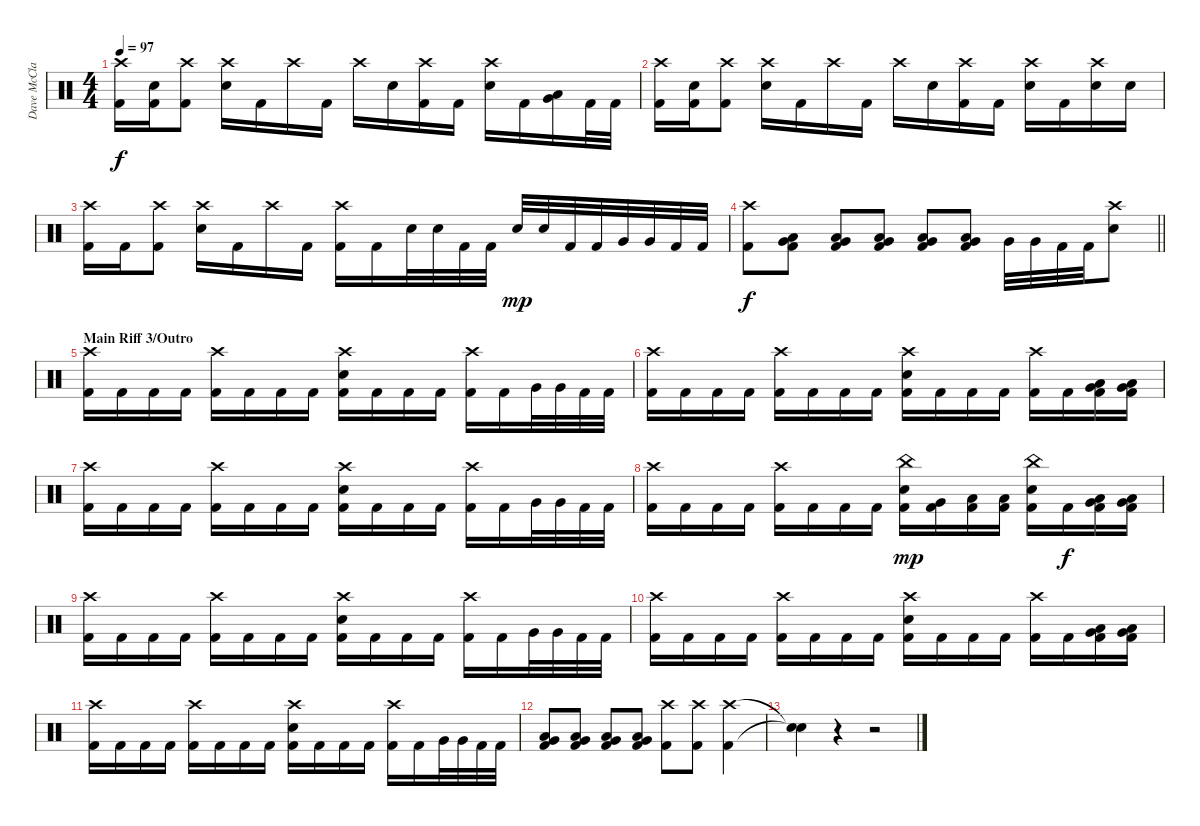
\track ("Dave McClain" "Dave McCla") {instrument percussion}
\staff {score}
\articulation defaults
\ts (4 4)
\tempo 97
\clef neutral
\ks c
("Crash high (hit)" "Kick (hit) 2").16{dy f} ("Snare (hit) 2" "Kick (hit) 2").16 ("Crash high (hit)" "Kick (hit) 2").8 ("Crash high (hit)" "Snare (hit) 2").16 "Kick (hit) 2".16 "Crash high (hit)".16 "Kick (hit) 2".16 "Crash high (hit)".16 "Snare (hit) 2".16 ("Crash high (hit)" "Kick (hit) 2").16 "Kick (hit) 2".16 ("Crash high (hit)" "Snare (hit) 2").16 "Kick (hit) 2".16 ("Low Floor Tom (hit)" "Very Low Tom (hit)").16 "Kick (hit) 2".32 "Kick (hit) 2".32 |
("Crash high (hit)" "Kick (hit) 2").16 ("Snare (hit) 2" "Kick (hit) 2").16 ("Crash high (hit)" "Kick (hit) 2").8 ("Crash high (hit)" "Snare (hit) 2").16 "Kick (hit) 2".16 "Crash high (hit)".16 "Kick (hit) 2".16 "Crash high (hit)".16 "Snare (hit) 2".16 ("Crash high (hit)" "Kick (hit) 2").16 "Kick (hit) 2".16 ("Crash high (hit)" "Snare (hit) 2").16 "Kick (hit) 2".16 ("Crash high (hit)" "Snare (hit) 2").16 "Snare (hit) 2".16 |
("Crash high (hit)" "Kick (hit) 2").16 "Kick (hit) 2".16 ("Crash high (hit)" "Kick (hit) 2").8 ("Crash high (hit)" "Snare (hit) 2").16 "Kick (hit) 2".16 "Crash high (hit)".16 "Kick (hit) 2".16 ("Crash high (hit)" "Kick (hit) 2").16 "Kick (hit) 2".16 "Snare (hit) 2".32 "Snare (hit) 2".32 "Kick (hit) 2".32 "Kick (hit) 2".32 "Snare (hit) 2".32{dy mp} "Snare (hit) 2".32 "Kick (hit) 2".32 "Kick (hit) 2".32 "Very Low Tom (hit)".32 "Very Low Tom (hit)".32 "Kick (hit) 2".32 "Kick (hit) 2".32 |
\barLineRight lightlight
("Crash high (hit)" "Kick (hit) 2").8{dy f} ("Very Low Tom (hit)" "Low Floor Tom (hit)" "Kick (hit) 2").8 ("Very Low Tom (hit)" "Low Floor Tom (hit)" "Kick (hit) 2").8 ("Very Low Tom (hit)" "Low Floor Tom (hit)" "Kick (hit) 2").8 ("Very Low Tom (hit)" "Low Floor Tom (hit)" "Kick (hit) 2").8 ("Very Low Tom (hit)" "Low Floor Tom (hit)" "Kick (hit) 2").8 "Very Low Tom (hit)".32 "Very Low Tom (hit)".32 "Kick (hit) 2".32 "Kick (hit) 2".32 ("Crash high (hit)" "Snare (hit) 2").8 |
\section ("" "Main Riff 3/Outro")
("Crash high (hit)" "Kick (hit) 2").16 "Kick (hit) 2".16 "Kick (hit) 2".16 "Kick (hit) 2".16 ("Crash high (hit)" "Kick (hit) 2").16 "Kick (hit) 2".16 "Kick (hit) 2".16 "Kick (hit) 2".16 ("Crash high (hit)" "Snare (hit) 2" "Kick (hit) 2").16 "Kick (hit) 2".16 "Kick (hit) 2".16 "Kick (hit) 2".16 ("Crash high (hit)" "Kick (hit) 2").16 "Kick (hit) 2".16 "Very Low Tom (hit)".32 "Very Low Tom (hit)".32 "Kick (hit) 2".32 "Kick (hit) 2".32 |
("Crash high (hit)" "Kick (hit) 2").16 "Kick (hit) 2".16 "Kick (hit) 2".16 "Kick (hit) 2".16 ("Crash high (hit)" "Kick (hit) 2").16 "Kick (hit) 2".16 "Kick (hit) 2".16 "Kick (hit) 2".16 ("Crash high (hit)" "Snare (hit) 2" "Kick (hit) 2").16 "Kick (hit) 2".16 "Kick (hit) 2".16 "Kick (hit) 2".16 ("Crash high (hit)" "Kick (hit) 2").16 "Kick (hit) 2".16 ("Very Low Tom (hit)" "Low Floor Tom (hit)" "Kick (hit) 2").16 ("Very Low Tom (hit)" "Low Floor Tom (hit)" "Kick (hit) 2").16 |
("Crash high (hit)" "Kick (hit) 2").16 "Kick (hit) 2".16 "Kick (hit) 2".16 "Kick (hit) 2".16 ("Crash high (hit)" "Kick (hit) 2").16 "Kick (hit) 2".16 "Kick (hit) 2".16 "Kick (hit) 2".16 ("Crash high (hit)" "Snare (hit) 2" "Kick (hit) 2").16 "Kick (hit) 2".16 "Kick (hit) 2".16 "Kick (hit) 2".16 ("Crash high (hit)" "Kick (hit) 2").16 "Kick (hit) 2".16 "Very Low Tom (hit)".32 "Very Low Tom (hit)".32 "Kick (hit) 2".32 "Kick (hit) 2".32 |
("Crash high (hit)" "Kick (hit) 2").16 "Kick (hit) 2".16 "Kick (hit) 2".16 "Kick (hit) 2".16 ("Crash high (hit)" "Kick (hit) 2").16 "Kick (hit) 2".16 "Kick (hit) 2".16 "Kick (hit) 2".16 ("China (hit)" "Snare (hit) 2" "Kick (hit) 2").16{dy mp} ("Very Low Tom (hit)" "Kick (hit) 2").16 ("Low Floor Tom (hit)" "Kick (hit) 2").16 ("Low Floor Tom (hit)" "Kick (hit) 2").16 ("China (hit)" "Snare (hit) 2" "Kick (hit) 2").16 "Kick (hit) 2".16{dy f} ("Very Low Tom (hit)" "Low Floor Tom (hit)" "Kick (hit) 2").16 ("Very Low Tom (hit)" "Low Floor Tom (hit)" "Kick (hit) 2").16 |
("Crash high (hit)" "Kick (hit) 2").16 "Kick (hit) 2".16 "Kick (hit) 2".16 "Kick (hit) 2".16 ("Crash high (hit)" "Kick (hit) 2").16 "Kick (hit) 2".16 "Kick (hit) 2".16 "Kick (hit) 2".16 ("Crash high (hit)" "Snare (hit) 2" "Kick (hit) 2").16 "Kick (hit) 2".16 "Kick (hit) 2".16 "Kick (hit) 2".16 ("Crash high (hit)" "Kick (hit) 2").16 "Kick (hit) 2".16 "Very Low Tom (hit)".32 "Very Low Tom (hit)".32 "Kick (hit) 2".32 "Kick (hit) 2".32 |
("Crash high (hit)" "Kick (hit) 2").16 "Kick (hit) 2".16 "Kick (hit) 2".16 "Kick (hit) 2".16 ("Crash high (hit)" "Kick (hit) 2").16 "Kick (hit) 2".16 "Kick (hit) 2".16 "Kick (hit) 2".16 ("Crash high (hit)" "Snare (hit) 2" "Kick (hit) 2").16 "Kick (hit) 2".16 "Kick (hit) 2".16 "Kick (hit) 2".16 ("Crash high (hit)" "Kick (hit) 2").16 "Kick (hit) 2".16 ("Very Low Tom (hit)" "Low Floor Tom (hit)" "Kick (hit) 2").16 ("Very Low Tom (hit)" "Low Floor Tom (hit)" "Kick (hit) 2").16 |
("Crash high (hit)" "Kick (hit) 2").16 "Kick (hit) 2".16 "Kick (hit) 2".16 "Kick (hit) 2".16 ("Crash high (hit)" "Kick (hit) 2").16 "Kick (hit) 2".16 "Kick (hit) 2".16 "Kick (hit) 2".16 ("Crash high (hit)" "Snare (hit) 2" "Kick (hit) 2").16 "Kick (hit) 2".16 "Kick (hit) 2".16 "Kick (hit) 2".16 ("Crash high (hit)" "Kick (hit) 2").16 "Kick (hit) 2".16 "Very Low Tom (hit)".32 "Very Low Tom (hit)".32 "Kick (hit) 2".32 "Kick (hit) 2".32 |
("Very Low Tom (hit)" "Low Floor Tom (hit)" "Kick (hit) 2").8 ("Very Low Tom (hit)" "Low Floor Tom (hit)" "Kick (hit) 2").8 ("Very Low Tom (hit)" "Low Floor Tom (hit)" "Kick (hit) 2").8 ("Very Low Tom (hit)" "Low Floor Tom (hit)" "Kick (hit) 2").8 ("Crash high (hit)" "Kick (hit) 2").8 ("Crash high (hit)" "Kick (hit) 2").8 ("Crash high (hit)" "Kick (hit) 2").4 |
("Snare (hit)"{t} "Snare (hit)"{t}).4 r.4 r.2
